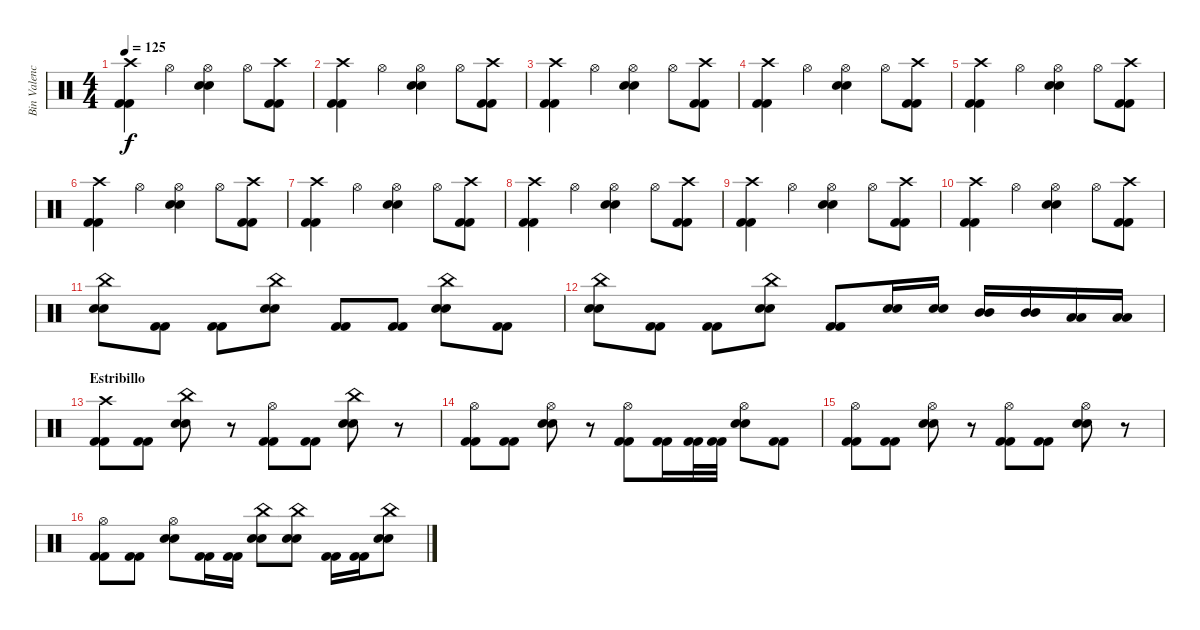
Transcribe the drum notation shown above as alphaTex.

\track ("Bin Valencia (Bateria)" "Bin Valenc") {instrument percussion}
\staff {score}
\articulation defaults
\ts (4 4)
\tempo 125
\clef neutral
\ks c
("Crash high (hit)" "Kick (hit) 2" "Kick (hit) 2").4{dy f} "Hi-Hat (open)".4 ("Hi-Hat (open)" "Snare (hit) 2" "Snare (hit) 2").4 "Hi-Hat (open)".8 ("Crash high (hit)" "Kick (hit) 2" "Kick (hit) 2").8 |
("Crash high (hit)" "Kick (hit) 2" "Kick (hit) 2").4 "Hi-Hat (open)".4 ("Hi-Hat (open)" "Snare (hit) 2" "Snare (hit) 2").4 "Hi-Hat (open)".8 ("Crash high (hit)" "Kick (hit) 2" "Kick (hit) 2").8 |
("Crash high (hit)" "Kick (hit) 2" "Kick (hit) 2").4 "Hi-Hat (open)".4 ("Hi-Hat (open)" "Snare (hit) 2" "Snare (hit) 2").4 "Hi-Hat (open)".8 ("Crash high (hit)" "Kick (hit) 2" "Kick (hit) 2").8 |
("Crash high (hit)" "Kick (hit) 2" "Kick (hit) 2").4 "Hi-Hat (open)".4 ("Hi-Hat (open)" "Snare (hit) 2" "Snare (hit) 2").4 "Hi-Hat (open)".8 ("Crash high (hit)" "Kick (hit) 2" "Kick (hit) 2").8 |
("Crash high (hit)" "Kick (hit) 2" "Kick (hit) 2").4 "Hi-Hat (open)".4 ("Hi-Hat (open)" "Snare (hit) 2" "Snare (hit) 2").4 "Hi-Hat (open)".8 ("Crash high (hit)" "Kick (hit) 2" "Kick (hit) 2").8 |
("Crash high (hit)" "Kick (hit) 2" "Kick (hit) 2").4 "Hi-Hat (open)".4 ("Hi-Hat (open)" "Snare (hit) 2" "Snare (hit) 2").4 "Hi-Hat (open)".8 ("Crash high (hit)" "Kick (hit) 2" "Kick (hit) 2").8 |
("Crash high (hit)" "Kick (hit) 2" "Kick (hit) 2").4 "Hi-Hat (open)".4 ("Hi-Hat (open)" "Snare (hit) 2" "Snare (hit) 2").4 "Hi-Hat (open)".8 ("Crash high (hit)" "Kick (hit) 2" "Kick (hit) 2").8 |
("Crash high (hit)" "Kick (hit) 2" "Kick (hit) 2").4 "Hi-Hat (open)".4 ("Hi-Hat (open)" "Snare (hit) 2" "Snare (hit) 2").4 "Hi-Hat (open)".8 ("Crash high (hit)" "Kick (hit) 2" "Kick (hit) 2").8 |
("Crash high (hit)" "Kick (hit) 2" "Kick (hit) 2").4 "Hi-Hat (open)".4 ("Hi-Hat (open)" "Snare (hit) 2" "Snare (hit) 2").4 "Hi-Hat (open)".8 ("Crash high (hit)" "Kick (hit) 2" "Kick (hit) 2").8 |
("Crash high (hit)" "Kick (hit) 2" "Kick (hit) 2").4 "Hi-Hat (open)".4 ("Hi-Hat (open)" "Snare (hit) 2" "Snare (hit) 2").4 "Hi-Hat (open)".8 ("Crash high (hit)" "Kick (hit) 2" "Kick (hit) 2").8 |
("China (hit)" "Snare (hit) 2" "Snare (hit) 2").8 ("Kick (hit) 2" "Kick (hit) 2").8 ("Kick (hit) 2" "Kick (hit) 2").8 ("China (hit)" "Snare (hit) 2" "Snare (hit) 2").8 ("Kick (hit) 2" "Kick (hit) 2").8 ("Kick (hit) 2" "Kick (hit) 2").8 ("China (hit)" "Snare (hit) 2" "Snare (hit) 2").8 ("Kick (hit) 2" "Kick (hit) 2").8 |
("China (hit)" "Snare (hit) 2" "Snare (hit) 2").8 ("Kick (hit) 2" "Kick (hit) 2").8 ("Kick (hit) 2" "Kick (hit) 2").8 ("China (hit)" "Snare (hit) 2" "Snare (hit) 2").8 ("Kick (hit) 2" "Kick (hit) 2").8 ("Snare (hit) 2" "Snare (hit) 2").16 ("Snare (hit) 2" "Snare (hit) 2").16 ("Mid Tom (hit)" "Mid Tom (hit)").16 ("Mid Tom (hit)" "Mid Tom (hit)").16 ("Low Tom (hit)" "Low Tom (hit)").16 ("Low Tom (hit)" "Low Tom (hit)").16 |
\section ("" "Estribillo")
("Crash high (hit)" "Kick (hit) 2" "Kick (hit) 2").8 ("Kick (hit) 2" "Kick (hit) 2").8 ("China (hit)" "Snare (hit) 2" "Snare (hit) 2").8 r.8 ("Hi-Hat (open)" "Kick (hit) 2" "Kick (hit) 2").8 ("Kick (hit) 2" "Kick (hit) 2").8 ("China (hit)" "Snare (hit) 2" "Snare (hit) 2").8 r.8 |
("Hi-Hat (open)" "Kick (hit) 2" "Kick (hit) 2").8 ("Kick (hit) 2" "Kick (hit) 2").8 ("Hi-Hat (open)" "Snare (hit) 2" "Snare (hit) 2").8 r.8 ("Hi-Hat (open)" "Kick (hit) 2" "Kick (hit) 2").8 ("Kick (hit) 2" "Kick (hit) 2").16 ("Kick (hit) 2" "Kick (hit) 2").32 ("Kick (hit) 2" "Kick (hit) 2").32 ("Hi-Hat (open)" "Snare (hit) 2" "Snare (hit) 2").8 ("Kick (hit) 2" "Kick (hit) 2").8 |
("Hi-Hat (open)" "Kick (hit) 2" "Kick (hit) 2").8 ("Kick (hit) 2" "Kick (hit) 2").8 ("Hi-Hat (open)" "Snare (hit) 2" "Snare (hit) 2").8 r.8 ("Hi-Hat (open)" "Kick (hit) 2" "Kick (hit) 2").8 ("Kick (hit) 2" "Kick (hit) 2").8 ("Hi-Hat (open)" "Snare (hit) 2" "Snare (hit) 2").8 r.8 |
("Hi-Hat (open)" "Kick (hit) 2" "Kick (hit) 2").8 ("Kick (hit) 2" "Kick (hit) 2").8 ("Hi-Hat (open)" "Snare (hit) 2" "Snare (hit) 2").8 ("Kick (hit) 2" "Kick (hit) 2").16 ("Kick (hit) 2" "Kick (hit) 2").16 ("China (hit)" "Snare (hit) 2" "Snare (hit) 2").8 ("China (hit)" "Snare (hit) 2" "Snare (hit) 2").8 ("Kick (hit) 2" "Kick (hit) 2").16 ("Kick (hit) 2" "Kick (hit) 2").16 ("China (hit)" "Snare (hit) 2" "Snare (hit) 2").8
